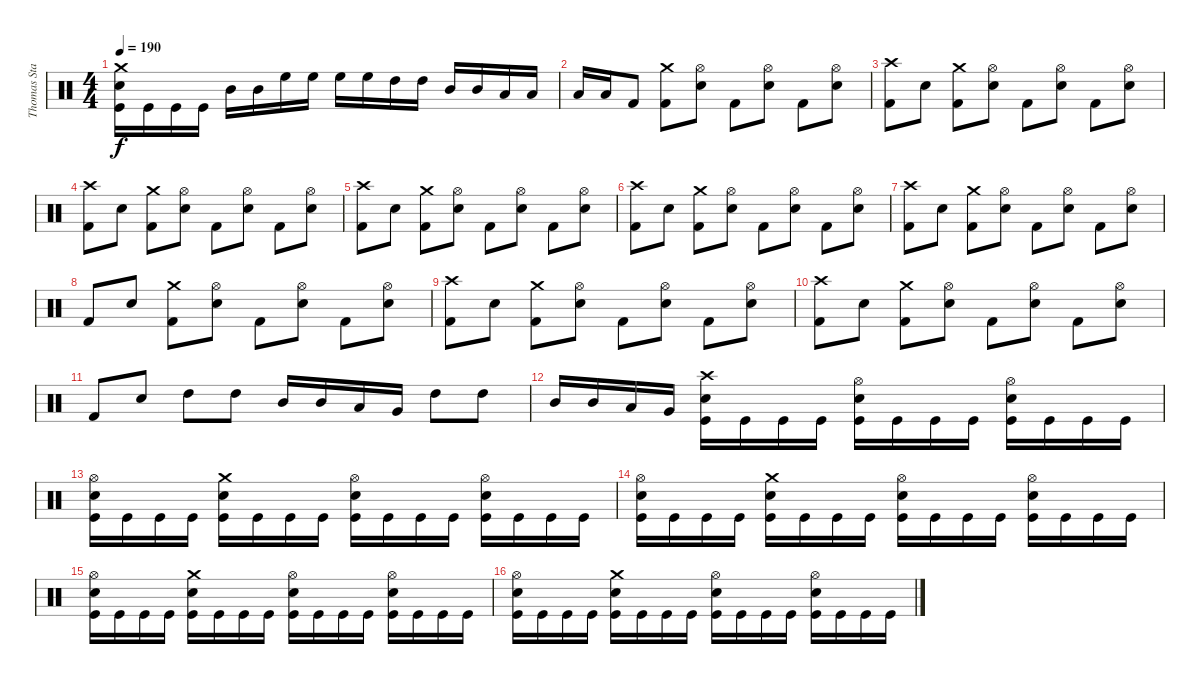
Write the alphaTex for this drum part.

\track ("Thomas Stauch" "Thomas Sta") {instrument percussion}
\staff {score}
\articulation defaults
\ts (4 4)
\tempo 190
\clef neutral
\ks c
("Crash medium (hit)" "Electric Snare (hit)" "Kick (hit)").16{dy f} "Kick (hit)".16 "Kick (hit)".16 "Kick (hit)".16 "Mid Tom (hit)".16 "Mid Tom (hit)".16 "High Floor Tom (hit)".16 "High Floor Tom (hit)".16 "High Floor Tom (hit)".16 "High Floor Tom (hit)".16 "High Tom (hit)".16 "High Tom (hit)".16 "Mid Tom (hit)".16 "Mid Tom (hit)".16 "Low Tom (hit)".16 "Low Tom (hit)".16 |
"Low Tom (hit)".16 "Low Tom (hit)".16 "Kick (hit) 2".8 ("Crash medium (hit)" "Kick (hit) 2").8 ("Hi-Hat (open)" "Electric Snare (hit)").8 "Kick (hit) 2".8 ("Hi-Hat (open)" "Electric Snare (hit)").8 "Kick (hit) 2".8 ("Hi-Hat (open)" "Electric Snare (hit)").8 |
("Crash high (hit)" "Kick (hit) 2").8 "Electric Snare (hit)".8 ("Crash medium (hit)" "Kick (hit) 2").8 ("Hi-Hat (open)" "Electric Snare (hit)").8 "Kick (hit) 2".8 ("Hi-Hat (open)" "Electric Snare (hit)").8 "Kick (hit) 2".8 ("Hi-Hat (open)" "Electric Snare (hit)").8 |
("Crash high (hit)" "Kick (hit) 2").8 "Electric Snare (hit)".8 ("Crash medium (hit)" "Kick (hit) 2").8 ("Hi-Hat (open)" "Electric Snare (hit)").8 "Kick (hit) 2".8 ("Hi-Hat (open)" "Electric Snare (hit)").8 "Kick (hit) 2".8 ("Hi-Hat (open)" "Electric Snare (hit)").8 |
("Crash high (hit)" "Kick (hit) 2").8 "Electric Snare (hit)".8 ("Crash medium (hit)" "Kick (hit) 2").8 ("Hi-Hat (open)" "Electric Snare (hit)").8 "Kick (hit) 2".8 ("Hi-Hat (open)" "Electric Snare (hit)").8 "Kick (hit) 2".8 ("Hi-Hat (open)" "Electric Snare (hit)").8 |
("Crash high (hit)" "Kick (hit) 2").8 "Electric Snare (hit)".8 ("Crash medium (hit)" "Kick (hit) 2").8 ("Hi-Hat (open)" "Electric Snare (hit)").8 "Kick (hit) 2".8 ("Hi-Hat (open)" "Electric Snare (hit)").8 "Kick (hit) 2".8 ("Hi-Hat (open)" "Electric Snare (hit)").8 |
("Crash high (hit)" "Kick (hit) 2").8 "Electric Snare (hit)".8 ("Crash medium (hit)" "Kick (hit) 2").8 ("Hi-Hat (open)" "Electric Snare (hit)").8 "Kick (hit) 2".8 ("Hi-Hat (open)" "Electric Snare (hit)").8 "Kick (hit) 2".8 ("Hi-Hat (open)" "Electric Snare (hit)").8 |
"Kick (hit) 2".8 "Electric Snare (hit)".8 ("Crash medium (hit)" "Kick (hit) 2").8 ("Hi-Hat (open)" "Electric Snare (hit)").8 "Kick (hit) 2".8 ("Hi-Hat (open)" "Electric Snare (hit)").8 "Kick (hit) 2".8 ("Hi-Hat (open)" "Electric Snare (hit)").8 |
("Crash high (hit)" "Kick (hit) 2").8 "Electric Snare (hit)".8 ("Crash medium (hit)" "Kick (hit) 2").8 ("Hi-Hat (open)" "Electric Snare (hit)").8 "Kick (hit) 2".8 ("Hi-Hat (open)" "Electric Snare (hit)").8 "Kick (hit) 2".8 ("Hi-Hat (open)" "Electric Snare (hit)").8 |
("Crash high (hit)" "Kick (hit) 2").8 "Electric Snare (hit)".8 ("Crash medium (hit)" "Kick (hit) 2").8 ("Hi-Hat (open)" "Electric Snare (hit)").8 "Kick (hit) 2".8 ("Hi-Hat (open)" "Electric Snare (hit)").8 "Kick (hit) 2".8 ("Hi-Hat (open)" "Electric Snare (hit)").8 |
"Kick (hit) 2".8 "Electric Snare (hit)".8 "High Tom (hit)".8 "High Tom (hit)".8 "Mid Tom (hit)".16 "Mid Tom (hit)".16 "Low Tom (hit)".16 "Very Low Tom (hit)".16 "High Tom (hit)".8 "High Tom (hit)".8 |
"Mid Tom (hit)".16 "Mid Tom (hit)".16 "Low Tom (hit)".16 "Very Low Tom (hit)".16 ("Crash high (hit)" "Electric Snare (hit)" "Kick (hit)").16 "Kick (hit)".16 "Kick (hit)".16 "Kick (hit)".16 ("Hi-Hat (open)" "Electric Snare (hit)" "Kick (hit)").16 "Kick (hit)".16 "Kick (hit)".16 "Kick (hit)".16 ("Hi-Hat (open)" "Electric Snare (hit)" "Kick (hit)").16 "Kick (hit)".16 "Kick (hit)".16 "Kick (hit)".16 |
("Hi-Hat (open)" "Electric Snare (hit)" "Kick (hit)").16 "Kick (hit)".16 "Kick (hit)".16 "Kick (hit)".16 ("Crash medium (hit)" "Electric Snare (hit)" "Kick (hit)").16 "Kick (hit)".16 "Kick (hit)".16 "Kick (hit)".16 ("Hi-Hat (open)" "Electric Snare (hit)" "Kick (hit)").16 "Kick (hit)".16 "Kick (hit)".16 "Kick (hit)".16 ("Hi-Hat (open)" "Electric Snare (hit)" "Kick (hit)").16 "Kick (hit)".16 "Kick (hit)".16 "Kick (hit)".16 |
("Hi-Hat (open)" "Electric Snare (hit)" "Kick (hit)").16 "Kick (hit)".16 "Kick (hit)".16 "Kick (hit)".16 ("Crash medium (hit)" "Electric Snare (hit)" "Kick (hit)").16 "Kick (hit)".16 "Kick (hit)".16 "Kick (hit)".16 ("Hi-Hat (open)" "Electric Snare (hit)" "Kick (hit)").16 "Kick (hit)".16 "Kick (hit)".16 "Kick (hit)".16 ("Hi-Hat (open)" "Electric Snare (hit)" "Kick (hit)").16 "Kick (hit)".16 "Kick (hit)".16 "Kick (hit)".16 |
("Hi-Hat (open)" "Electric Snare (hit)" "Kick (hit)").16 "Kick (hit)".16 "Kick (hit)".16 "Kick (hit)".16 ("Crash medium (hit)" "Electric Snare (hit)" "Kick (hit)").16 "Kick (hit)".16 "Kick (hit)".16 "Kick (hit)".16 ("Hi-Hat (open)" "Electric Snare (hit)" "Kick (hit)").16 "Kick (hit)".16 "Kick (hit)".16 "Kick (hit)".16 ("Hi-Hat (open)" "Electric Snare (hit)" "Kick (hit)").16 "Kick (hit)".16 "Kick (hit)".16 "Kick (hit)".16 |
("Hi-Hat (open)" "Electric Snare (hit)" "Kick (hit)").16 "Kick (hit)".16 "Kick (hit)".16 "Kick (hit)".16 ("Crash medium (hit)" "Electric Snare (hit)" "Kick (hit)").16 "Kick (hit)".16 "Kick (hit)".16 "Kick (hit)".16 ("Hi-Hat (open)" "Electric Snare (hit)" "Kick (hit)").16 "Kick (hit)".16 "Kick (hit)".16 "Kick (hit)".16 ("Hi-Hat (open)" "Electric Snare (hit)" "Kick (hit)").16 "Kick (hit)".16 "Kick (hit)".16 "Kick (hit)".16
